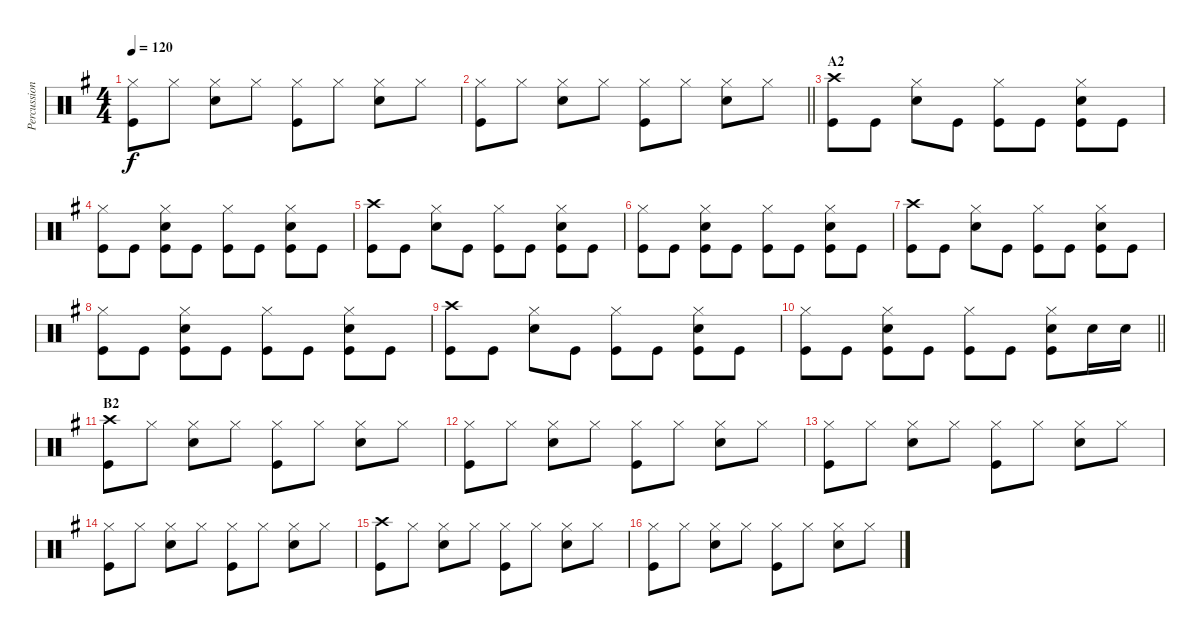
\track ("Percussion" "Percussion") {instrument percussion}
\staff {score}
\articulation defaults
\ts (4 4)
\tempo 120
\clef neutral
\ks eminor
("Hi-Hat (closed)" "Kick (hit)").8{dy f} "Hi-Hat (closed)".8 ("Hi-Hat (closed)" "Snare (hit) 2").8 "Hi-Hat (closed)".8 ("Hi-Hat (closed)" "Kick (hit)").8 "Hi-Hat (closed)".8 ("Hi-Hat (closed)" "Snare (hit) 2").8 "Hi-Hat (closed)".8 |
\barLineRight lightlight
("Hi-Hat (closed)" "Kick (hit)").8 "Hi-Hat (closed)".8 ("Hi-Hat (closed)" "Snare (hit) 2").8 "Hi-Hat (closed)".8 ("Hi-Hat (closed)" "Kick (hit)").8 "Hi-Hat (closed)".8 ("Hi-Hat (closed)" "Snare (hit) 2").8 "Hi-Hat (closed)".8 |
\section ("" "A2")
("Kick (hit)" "Crash high (hit)").8 "Kick (hit)".8 ("Hi-Hat (closed)" "Snare (hit) 2").8 "Kick (hit)".8 ("Kick (hit)" "Hi-Hat (closed)").8 "Kick (hit)".8 ("Kick (hit)" "Snare (hit) 2" "Hi-Hat (closed)").8 "Kick (hit)".8 |
("Kick (hit)" "Hi-Hat (closed)").8 "Kick (hit)".8 ("Kick (hit)" "Snare (hit) 2" "Hi-Hat (closed)").8 "Kick (hit)".8 ("Kick (hit)" "Hi-Hat (closed)").8 "Kick (hit)".8 ("Kick (hit)" "Snare (hit) 2" "Hi-Hat (closed)").8 "Kick (hit)".8 |
("Kick (hit)" "Crash high (hit)").8 "Kick (hit)".8 ("Hi-Hat (closed)" "Snare (hit) 2").8 "Kick (hit)".8 ("Kick (hit)" "Hi-Hat (closed)").8 "Kick (hit)".8 ("Kick (hit)" "Snare (hit) 2" "Hi-Hat (closed)").8 "Kick (hit)".8 |
("Kick (hit)" "Hi-Hat (closed)").8 "Kick (hit)".8 ("Kick (hit)" "Snare (hit) 2" "Hi-Hat (closed)").8 "Kick (hit)".8 ("Kick (hit)" "Hi-Hat (closed)").8 "Kick (hit)".8 ("Kick (hit)" "Snare (hit) 2" "Hi-Hat (closed)").8 "Kick (hit)".8 |
("Kick (hit)" "Crash high (hit)").8 "Kick (hit)".8 ("Hi-Hat (closed)" "Snare (hit) 2").8 "Kick (hit)".8 ("Kick (hit)" "Hi-Hat (closed)").8 "Kick (hit)".8 ("Kick (hit)" "Snare (hit) 2" "Hi-Hat (closed)").8 "Kick (hit)".8 |
("Kick (hit)" "Hi-Hat (closed)").8 "Kick (hit)".8 ("Kick (hit)" "Snare (hit) 2" "Hi-Hat (closed)").8 "Kick (hit)".8 ("Kick (hit)" "Hi-Hat (closed)").8 "Kick (hit)".8 ("Kick (hit)" "Snare (hit) 2" "Hi-Hat (closed)").8 "Kick (hit)".8 |
("Kick (hit)" "Crash high (hit)").8 "Kick (hit)".8 ("Hi-Hat (closed)" "Snare (hit) 2").8 "Kick (hit)".8 ("Kick (hit)" "Hi-Hat (closed)").8 "Kick (hit)".8 ("Kick (hit)" "Snare (hit) 2" "Hi-Hat (closed)").8 "Kick (hit)".8 |
\barLineRight lightlight
("Kick (hit)" "Hi-Hat (closed)").8 "Kick (hit)".8 ("Kick (hit)" "Snare (hit) 2" "Hi-Hat (closed)").8 "Kick (hit)".8 ("Kick (hit)" "Hi-Hat (closed)").8 "Kick (hit)".8 ("Kick (hit)" "Snare (hit) 2" "Hi-Hat (closed)").8 "Snare (hit) 2".16 "Snare (hit) 2".16 |
\section ("" "B2")
("Crash high (hit)" "Kick (hit)").8 "Hi-Hat (closed)".8 ("Hi-Hat (closed)" "Snare (hit) 2").8 "Hi-Hat (closed)".8 ("Hi-Hat (closed)" "Kick (hit)").8 "Hi-Hat (closed)".8 ("Hi-Hat (closed)" "Snare (hit) 2").8 "Hi-Hat (closed)".8 |
("Hi-Hat (closed)" "Kick (hit)").8 "Hi-Hat (closed)".8 ("Hi-Hat (closed)" "Snare (hit) 2").8 "Hi-Hat (closed)".8 ("Hi-Hat (closed)" "Kick (hit)").8 "Hi-Hat (closed)".8 ("Hi-Hat (closed)" "Snare (hit) 2").8 "Hi-Hat (closed)".8 |
("Hi-Hat (closed)" "Kick (hit)").8 "Hi-Hat (closed)".8 ("Hi-Hat (closed)" "Snare (hit) 2").8 "Hi-Hat (closed)".8 ("Hi-Hat (closed)" "Kick (hit)").8 "Hi-Hat (closed)".8 ("Hi-Hat (closed)" "Snare (hit) 2").8 "Hi-Hat (closed)".8 |
("Hi-Hat (closed)" "Kick (hit)").8 "Hi-Hat (closed)".8 ("Hi-Hat (closed)" "Snare (hit) 2").8 "Hi-Hat (closed)".8 ("Hi-Hat (closed)" "Kick (hit)").8 "Hi-Hat (closed)".8 ("Hi-Hat (closed)" "Snare (hit) 2").8 "Hi-Hat (closed)".8 |
("Crash high (hit)" "Kick (hit)").8 "Hi-Hat (closed)".8 ("Hi-Hat (closed)" "Snare (hit) 2").8 "Hi-Hat (closed)".8 ("Hi-Hat (closed)" "Kick (hit)").8 "Hi-Hat (closed)".8 ("Hi-Hat (closed)" "Snare (hit) 2").8 "Hi-Hat (closed)".8 |
("Hi-Hat (closed)" "Kick (hit)").8 "Hi-Hat (closed)".8 ("Hi-Hat (closed)" "Snare (hit) 2").8 "Hi-Hat (closed)".8 ("Hi-Hat (closed)" "Kick (hit)").8 "Hi-Hat (closed)".8 ("Hi-Hat (closed)" "Snare (hit) 2").8 "Hi-Hat (closed)".8
